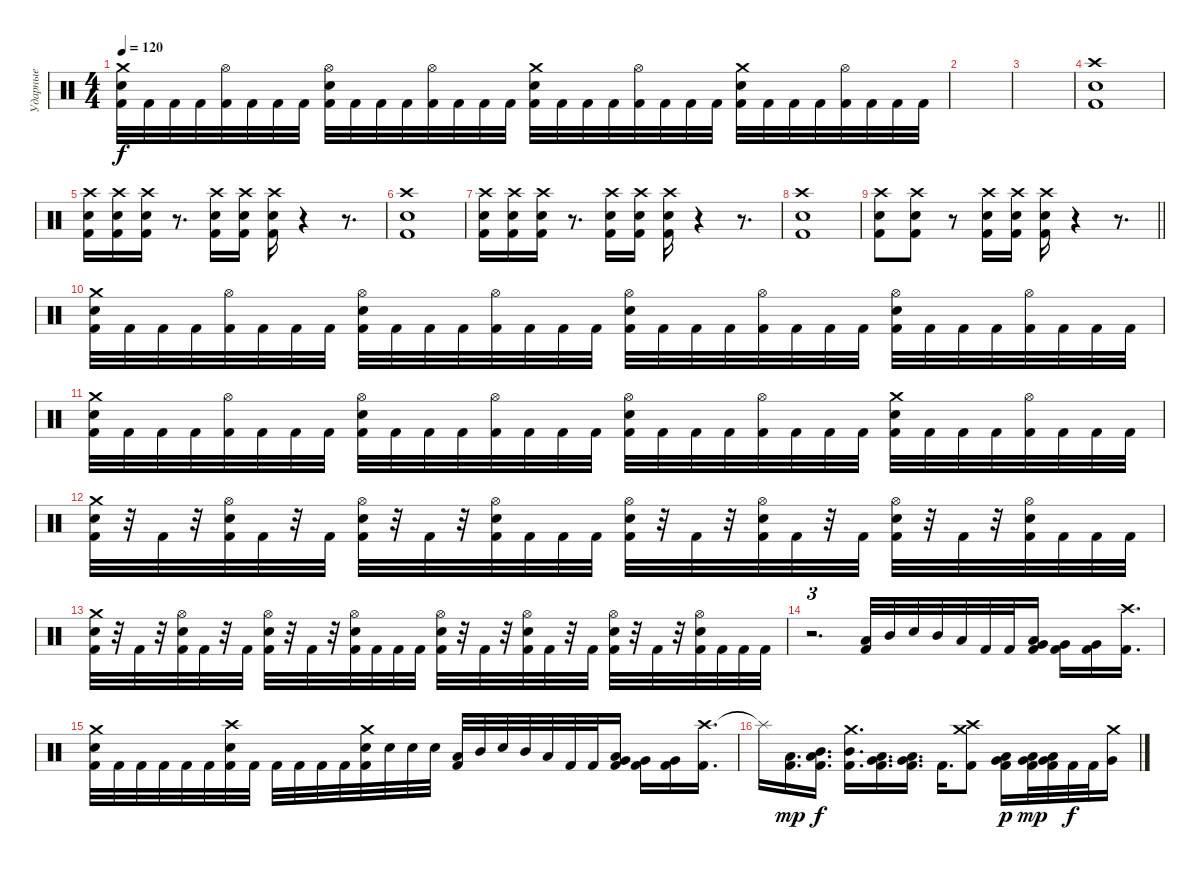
\track ("Ударные" "Ударные") {instrument percussion}
\staff {score}
\articulation defaults
\ts (4 4)
\tempo 120
\clef neutral
\ks c
("Crash medium (hit)" "Electric Snare (hit)" "Kick (hit) 2").32{dy f} "Kick (hit) 2".32 "Kick (hit) 2".32 "Kick (hit) 2".32 ("Hi-Hat (open)" "Kick (hit) 2").32 "Kick (hit) 2".32 "Kick (hit) 2".32 "Kick (hit) 2".32 ("Hi-Hat (open)" "Electric Snare (hit)" "Kick (hit) 2").32 "Kick (hit) 2".32 "Kick (hit) 2".32 "Kick (hit) 2".32 ("Hi-Hat (open)" "Kick (hit) 2").32 "Kick (hit) 2".32 "Kick (hit) 2".32 "Kick (hit) 2".32 ("Crash medium (hit)" "Electric Snare (hit)" "Kick (hit) 2").32 "Kick (hit) 2".32 "Kick (hit) 2".32 "Kick (hit) 2".32 ("Hi-Hat (open)" "Kick (hit) 2").32 "Kick (hit) 2".32 "Kick (hit) 2".32 "Kick (hit) 2".32 ("Crash medium (hit)" "Electric Snare (hit)" "Kick (hit) 2").32 "Kick (hit) 2".32 "Kick (hit) 2".32 "Kick (hit) 2".32 ("Hi-Hat (open)" "Kick (hit) 2").32 "Kick (hit) 2".32 "Kick (hit) 2".32 "Kick (hit) 2".32 |
|
|
("Crash high (hit)" "Electric Snare (hit)" "Kick (hit) 2").1 |
("Crash high (hit)" "Electric Snare (hit)" "Kick (hit) 2").16 ("Crash high (hit)" "Electric Snare (hit)" "Kick (hit) 2").16 ("Crash high (hit)" "Electric Snare (hit)" "Kick (hit) 2").16 r.8{d} ("Crash high (hit)" "Electric Snare (hit)" "Kick (hit) 2").16 ("Crash high (hit)" "Electric Snare (hit)" "Kick (hit) 2").16 ("Crash high (hit)" "Electric Snare (hit)" "Kick (hit) 2").16 r.4 r.8{d} |
("Crash high (hit)" "Electric Snare (hit)" "Kick (hit) 2").1 |
("Crash high (hit)" "Electric Snare (hit)" "Kick (hit) 2").16 ("Crash high (hit)" "Electric Snare (hit)" "Kick (hit) 2").16 ("Crash high (hit)" "Electric Snare (hit)" "Kick (hit) 2").16 r.8{d} ("Crash high (hit)" "Electric Snare (hit)" "Kick (hit) 2").16 ("Crash high (hit)" "Electric Snare (hit)" "Kick (hit) 2").16 ("Crash high (hit)" "Electric Snare (hit)" "Kick (hit) 2").16 r.4 r.8{d} |
("Crash high (hit)" "Electric Snare (hit)" "Kick (hit) 2").1 |
\barLineRight lightlight
("Crash high (hit)" "Electric Snare (hit)" "Kick (hit) 2").8 ("Crash high (hit)" "Electric Snare (hit)" "Kick (hit) 2").8 r.8 ("Crash high (hit)" "Electric Snare (hit)" "Kick (hit) 2").16 ("Crash high (hit)" "Electric Snare (hit)" "Kick (hit) 2").16 ("Crash high (hit)" "Electric Snare (hit)" "Kick (hit) 2").16 r.4 r.8{d} |
("Crash medium (hit)" "Electric Snare (hit)" "Kick (hit) 2").32 "Kick (hit) 2".32 "Kick (hit) 2".32 "Kick (hit) 2".32 ("Hi-Hat (open)" "Kick (hit) 2").32 "Kick (hit) 2".32 "Kick (hit) 2".32 "Kick (hit) 2".32 ("Hi-Hat (open)" "Electric Snare (hit)" "Kick (hit) 2").32 "Kick (hit) 2".32 "Kick (hit) 2".32 "Kick (hit) 2".32 ("Hi-Hat (open)" "Kick (hit) 2").32 "Kick (hit) 2".32 "Kick (hit) 2".32 "Kick (hit) 2".32 ("Hi-Hat (open)" "Electric Snare (hit)" "Kick (hit) 2").32 "Kick (hit) 2".32 "Kick (hit) 2".32 "Kick (hit) 2".32 ("Hi-Hat (open)" "Kick (hit) 2").32 "Kick (hit) 2".32 "Kick (hit) 2".32 "Kick (hit) 2".32 ("Hi-Hat (open)" "Electric Snare (hit)" "Kick (hit) 2").32 "Kick (hit) 2".32 "Kick (hit) 2".32 "Kick (hit) 2".32 ("Hi-Hat (open)" "Kick (hit) 2").32 "Kick (hit) 2".32 "Kick (hit) 2".32 "Kick (hit) 2".32 |
("Crash medium (hit)" "Electric Snare (hit)" "Kick (hit) 2").32 "Kick (hit) 2".32 "Kick (hit) 2".32 "Kick (hit) 2".32 ("Hi-Hat (open)" "Kick (hit) 2").32 "Kick (hit) 2".32 "Kick (hit) 2".32 "Kick (hit) 2".32 ("Hi-Hat (open)" "Electric Snare (hit)" "Kick (hit) 2").32 "Kick (hit) 2".32 "Kick (hit) 2".32 "Kick (hit) 2".32 ("Hi-Hat (open)" "Kick (hit) 2").32 "Kick (hit) 2".32 "Kick (hit) 2".32 "Kick (hit) 2".32 ("Hi-Hat (open)" "Electric Snare (hit)" "Kick (hit) 2").32 "Kick (hit) 2".32 "Kick (hit) 2".32 "Kick (hit) 2".32 ("Hi-Hat (open)" "Kick (hit) 2").32 "Kick (hit) 2".32 "Kick (hit) 2".32 "Kick (hit) 2".32 ("Crash medium (hit)" "Electric Snare (hit)" "Kick (hit) 2").32 "Kick (hit) 2".32 "Kick (hit) 2".32 "Kick (hit) 2".32 ("Hi-Hat (open)" "Kick (hit) 2").32 "Kick (hit) 2".32 "Kick (hit) 2".32 "Kick (hit) 2".32 |
("Crash medium (hit)" "Electric Snare (hit)" "Kick (hit) 2").32 r.32 "Kick (hit) 2".32 r.32 ("Hi-Hat (open)" "Electric Snare (hit)" "Kick (hit) 2").32 "Kick (hit) 2".32 r.32 "Kick (hit) 2".32 ("Hi-Hat (open)" "Electric Snare (hit)" "Kick (hit) 2").32 r.32 "Kick (hit) 2".32 r.32 ("Hi-Hat (open)" "Electric Snare (hit)" "Kick (hit) 2").32 "Kick (hit) 2".32 "Kick (hit) 2".32 "Kick (hit) 2".32 ("Hi-Hat (open)" "Electric Snare (hit)" "Kick (hit) 2").32 r.32 "Kick (hit) 2".32 r.32 ("Hi-Hat (open)" "Electric Snare (hit)" "Kick (hit) 2").32 "Kick (hit) 2".32 r.32 "Kick (hit) 2".32 ("Hi-Hat (open)" "Electric Snare (hit)" "Kick (hit) 2").32 r.32 "Kick (hit) 2".32 r.32 ("Hi-Hat (open)" "Electric Snare (hit)" "Kick (hit) 2").32 "Kick (hit) 2".32 "Kick (hit) 2".32 "Kick (hit) 2".32 |
("Crash medium (hit)" "Electric Snare (hit)" "Kick (hit) 2").32 r.32 "Kick (hit) 2".32 r.32 ("Hi-Hat (open)" "Electric Snare (hit)" "Kick (hit) 2").32 "Kick (hit) 2".32 r.32 "Kick (hit) 2".32 ("Hi-Hat (open)" "Electric Snare (hit)" "Kick (hit) 2").32 r.32 "Kick (hit) 2".32 r.32 ("Hi-Hat (open)" "Electric Snare (hit)" "Kick (hit) 2").32 "Kick (hit) 2".32 "Kick (hit) 2".32 "Kick (hit) 2".32 ("Hi-Hat (open)" "Electric Snare (hit)" "Kick (hit) 2").32 r.32 "Kick (hit) 2".32 r.32 ("Hi-Hat (open)" "Electric Snare (hit)" "Kick (hit) 2").32 "Kick (hit) 2".32 r.32 "Kick (hit) 2".32 ("Hi-Hat (open)" "Electric Snare (hit)" "Kick (hit) 2").32 r.32 "Kick (hit) 2".32 r.32 ("Hi-Hat (open)" "Electric Snare (hit)" "Kick (hit) 2").32 "Kick (hit) 2".32 "Kick (hit) 2".32 "Kick (hit) 2".32 |
r.2{d tu (3 2)} ("Low Tom (hit)" "Kick (hit) 2").32 "Mid Tom (hit)".32 "Electric Snare (hit)".32 "Mid Tom (hit)".32 "Low Tom (hit)".32 "Kick (hit) 2".32 "Kick (hit) 2".32 ("Low Tom (hit)" "Very Low Tom (hit)" "Kick (hit) 2").16 ("Very Low Tom (hit)" "Kick (hit) 2").16 ("Very Low Tom (hit)" "Kick (hit) 2").16 ("Crash high (hit)" "Kick (hit) 2").16{d} |
("Crash medium (hit)" "Electric Snare (hit)" "Kick (hit) 2").32 "Kick (hit) 2".32 "Kick (hit) 2".32 "Kick (hit) 2".32 "Kick (hit) 2".32 "Kick (hit) 2".32 ("Crash high (hit)" "Electric Snare (hit)" "Kick (hit) 2").32 "Kick (hit) 2".32 "Kick (hit) 2".32 "Kick (hit) 2".32 "Kick (hit) 2".32 "Kick (hit) 2".32 ("Crash medium (hit)" "Electric Snare (hit)" "Kick (hit) 2").32 "Electric Snare (hit)".32 "Electric Snare (hit)".32 "Electric Snare (hit)".32 ("Low Tom (hit)" "Kick (hit) 2").32 "Mid Tom (hit)".32 "Electric Snare (hit)".32 "Mid Tom (hit)".32 "Low Tom (hit)".32 "Kick (hit) 2".32 "Kick (hit) 2".32 ("Low Tom (hit)" "Very Low Tom (hit)" "Kick (hit) 2").16 ("Very Low Tom (hit)" "Kick (hit) 2").16 ("Very Low Tom (hit)" "Kick (hit) 2").16 ("Crash high (hit)" "Kick (hit) 2").16{d} |
"Splash (hit)"{t}.16 ("Low Tom (hit)" "Kick (hit) 2").16{d dy mp} ("Low Tom (hit)" "Mid Tom (hit)" "Kick (hit) 2").16{d dy f} ("Crash medium (hit)" "Mid Tom (hit)" "Kick (hit) 2").16{d} ("Very Low Tom (hit)" "Low Tom (hit)" "Kick (hit) 2").16{d} ("Very Low Tom (hit)" "Low Tom (hit)" "Kick (hit) 2").16{d} "Kick (hit) 2".16{d} ("Crash medium (hit)" "Crash high (hit)" "Kick (hit) 2").8 ("Low Tom (hit)" "Very Low Tom (hit)" "Kick (hit) 2").16{dy p} ("Low Tom (hit)" "Very Low Tom (hit)" "Kick (hit) 2").32{dy mp} ("Low Tom (hit)" "Very Low Tom (hit)" "Kick (hit) 2").32 "Kick (hit) 2".32{dy f} "Kick (hit) 2".32 ("Crash medium (hit)" "Very Low Tom (hit)").16
